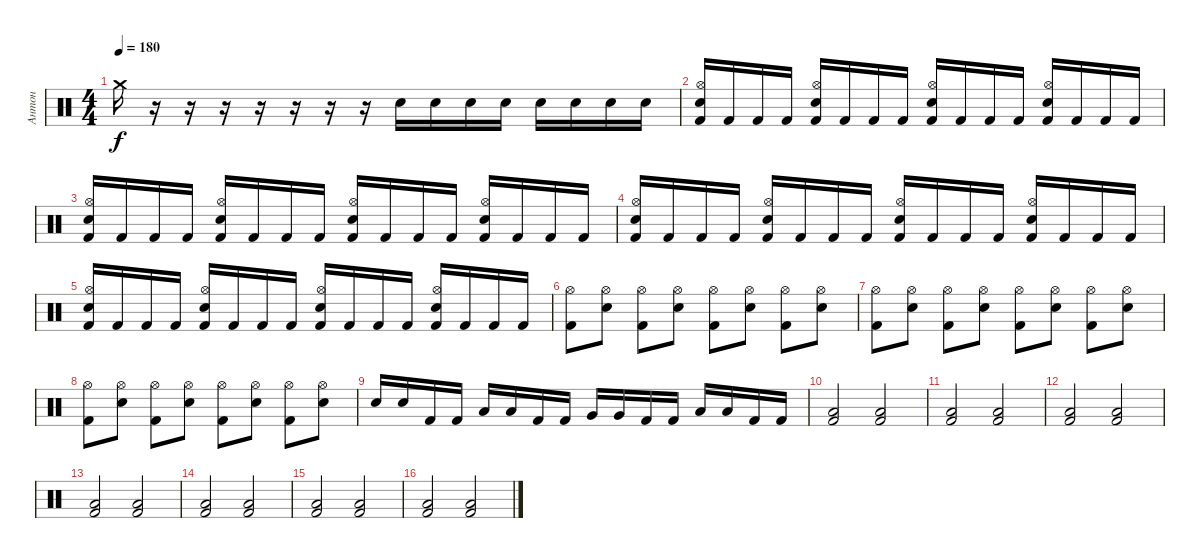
\track ("Антон" "Антон") {instrument percussion}
\staff {score}
\articulation defaults
\ts (4 4)
\tempo 180
\clef neutral
\ks c "Crash medium (hit)".16{dy f}
r.16 r.16 r.16 r.16 r.16 r.16 r.16 "Electric Snare (hit)".16 "Electric Snare (hit)".16 "Electric Snare (hit)".16 "Electric Snare (hit)".16 "Electric Snare (hit)".16 "Electric Snare (hit)".16 "Electric Snare (hit)".16 "Electric Snare (hit)".16 |
("Hi-Hat (open)" "Electric Snare (hit)" "Kick (hit) 2").16 "Kick (hit) 2".16 "Kick (hit) 2".16 "Kick (hit) 2".16 ("Hi-Hat (open)" "Electric Snare (hit)" "Kick (hit) 2").16 "Kick (hit) 2".16 "Kick (hit) 2".16 "Kick (hit) 2".16 ("Hi-Hat (open)" "Electric Snare (hit)" "Kick (hit) 2").16 "Kick (hit) 2".16 "Kick (hit) 2".16 "Kick (hit) 2".16 ("Hi-Hat (open)" "Electric Snare (hit)" "Kick (hit) 2").16 "Kick (hit) 2".16 "Kick (hit) 2".16 "Kick (hit) 2".16 |
("Hi-Hat (open)" "Electric Snare (hit)" "Kick (hit) 2").16 "Kick (hit) 2".16 "Kick (hit) 2".16 "Kick (hit) 2".16 ("Hi-Hat (open)" "Electric Snare (hit)" "Kick (hit) 2").16 "Kick (hit) 2".16 "Kick (hit) 2".16 "Kick (hit) 2".16 ("Hi-Hat (open)" "Electric Snare (hit)" "Kick (hit) 2").16 "Kick (hit) 2".16 "Kick (hit) 2".16 "Kick (hit) 2".16 ("Hi-Hat (open)" "Electric Snare (hit)" "Kick (hit) 2").16 "Kick (hit) 2".16 "Kick (hit) 2".16 "Kick (hit) 2".16 |
("Hi-Hat (open)" "Electric Snare (hit)" "Kick (hit) 2").16 "Kick (hit) 2".16 "Kick (hit) 2".16 "Kick (hit) 2".16 ("Hi-Hat (open)" "Electric Snare (hit)" "Kick (hit) 2").16 "Kick (hit) 2".16 "Kick (hit) 2".16 "Kick (hit) 2".16 ("Hi-Hat (open)" "Electric Snare (hit)" "Kick (hit) 2").16 "Kick (hit) 2".16 "Kick (hit) 2".16 "Kick (hit) 2".16 ("Hi-Hat (open)" "Electric Snare (hit)" "Kick (hit) 2").16 "Kick (hit) 2".16 "Kick (hit) 2".16 "Kick (hit) 2".16 |
("Hi-Hat (open)" "Electric Snare (hit)" "Kick (hit) 2").16 "Kick (hit) 2".16 "Kick (hit) 2".16 "Kick (hit) 2".16 ("Hi-Hat (open)" "Electric Snare (hit)" "Kick (hit) 2").16 "Kick (hit) 2".16 "Kick (hit) 2".16 "Kick (hit) 2".16 ("Hi-Hat (open)" "Electric Snare (hit)" "Kick (hit) 2").16 "Kick (hit) 2".16 "Kick (hit) 2".16 "Kick (hit) 2".16 ("Hi-Hat (open)" "Electric Snare (hit)" "Kick (hit) 2").16 "Kick (hit) 2".16 "Kick (hit) 2".16 "Kick (hit) 2".16 |
("Hi-Hat (open)" "Kick (hit) 2").8 ("Hi-Hat (open)" "Electric Snare (hit)").8 ("Hi-Hat (open)" "Kick (hit) 2").8 ("Hi-Hat (open)" "Electric Snare (hit)").8 ("Hi-Hat (open)" "Kick (hit) 2").8 ("Hi-Hat (open)" "Electric Snare (hit)").8 ("Hi-Hat (open)" "Kick (hit) 2").8 ("Hi-Hat (open)" "Electric Snare (hit)").8 |
("Hi-Hat (open)" "Kick (hit) 2").8 ("Hi-Hat (open)" "Electric Snare (hit)").8 ("Hi-Hat (open)" "Kick (hit) 2").8 ("Hi-Hat (open)" "Electric Snare (hit)").8 ("Hi-Hat (open)" "Kick (hit) 2").8 ("Hi-Hat (open)" "Electric Snare (hit)").8 ("Hi-Hat (open)" "Kick (hit) 2").8 ("Hi-Hat (open)" "Electric Snare (hit)").8 |
("Hi-Hat (open)" "Kick (hit) 2").8 ("Hi-Hat (open)" "Electric Snare (hit)").8 ("Hi-Hat (open)" "Kick (hit) 2").8 ("Hi-Hat (open)" "Electric Snare (hit)").8 ("Hi-Hat (open)" "Kick (hit) 2").8 ("Hi-Hat (open)" "Electric Snare (hit)").8 ("Hi-Hat (open)" "Kick (hit) 2").8 ("Hi-Hat (open)" "Electric Snare (hit)").8 |
"Electric Snare (hit)".16 "Electric Snare (hit)".16 "Kick (hit) 2".16 "Kick (hit) 2".16 "Low Tom (hit)".16 "Low Tom (hit)".16 "Kick (hit) 2".16 "Kick (hit) 2".16 "Very Low Tom (hit)".16 "Very Low Tom (hit)".16 "Kick (hit) 2".16 "Kick (hit) 2".16 "Low Floor Tom (hit)".16 "Low Floor Tom (hit)".16 "Kick (hit) 2".16 "Kick (hit) 2".16 |
("Low Tom (hit)" "Kick (hit) 2").2 ("Low Tom (hit)" "Kick (hit) 2").2 |
("Low Tom (hit)" "Kick (hit) 2").2 ("Low Tom (hit)" "Kick (hit) 2").2 |
("Low Tom (hit)" "Kick (hit) 2").2 ("Low Tom (hit)" "Kick (hit) 2").2 |
("Low Tom (hit)" "Kick (hit) 2").2 ("Low Tom (hit)" "Kick (hit) 2").2 |
("Low Tom (hit)" "Kick (hit) 2").2 ("Low Tom (hit)" "Kick (hit) 2").2 |
("Low Tom (hit)" "Kick (hit) 2").2 ("Low Tom (hit)" "Kick (hit) 2").2 |
("Low Tom (hit)" "Kick (hit) 2").2 ("Low Tom (hit)" "Kick (hit) 2").2
